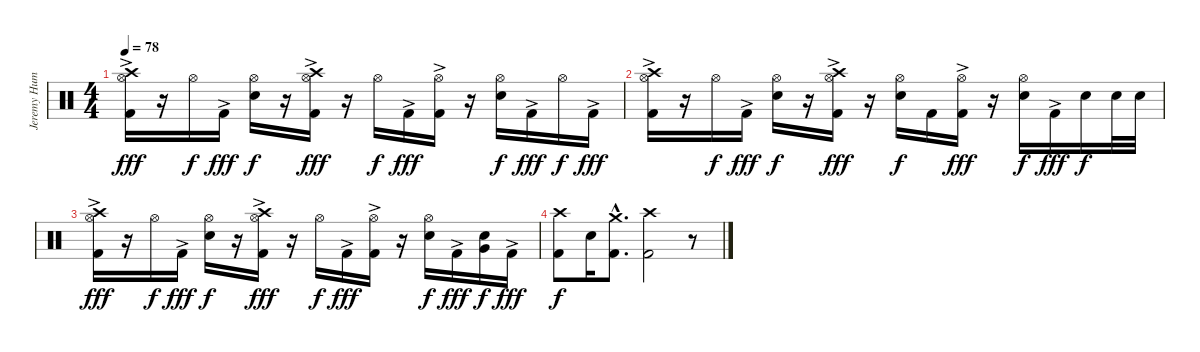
\track ("Jeremy Hummel" "Jeremy Hum") {instrument percussion}
\staff {score}
\articulation defaults
\ts (4 4)
\tempo 78
\clef neutral
\ks c
("Crash high (hit)" "Hi-Hat (open)" "Kick (hit) 2"{ac}).16{dy fff} r.16 "Hi-Hat (open)".16{dy f} "Kick (hit) 2"{ac}.16{dy fff} ("Hi-Hat (open)" "Snare (hit) 2").16{dy f} r.16 ("Crash high (hit)" "Hi-Hat (open)" "Kick (hit) 2"{ac}).16{dy fff} r.16 "Hi-Hat (open)".16{dy f} "Kick (hit) 2"{ac}.16{dy fff} ("Hi-Hat (open)" "Kick (hit) 2"{ac}).16 r.16 ("Hi-Hat (open)" "Snare (hit) 2").16{dy f} "Kick (hit) 2"{ac}.16{dy fff} "Hi-Hat (open)".16{dy f} "Kick (hit) 2"{ac}.16{dy fff} |
("Crash high (hit)" "Hi-Hat (open)" "Kick (hit) 2"{ac}).16 r.16 "Hi-Hat (open)".16{dy f} "Kick (hit) 2"{ac}.16{dy fff} ("Hi-Hat (open)" "Snare (hit) 2").16{dy f} r.16 ("Crash high (hit)" "Hi-Hat (open)" "Kick (hit) 2"{ac}).16{dy fff} r.16 ("Hi-Hat (open)" "Snare (hit) 2").16{dy f} "Kick (hit) 2".16 ("Hi-Hat (open)" "Kick (hit) 2"{ac}).16{dy fff} r.16 ("Hi-Hat (open)" "Snare (hit) 2").16{dy f} "Kick (hit) 2"{ac}.16{dy fff} "Snare (hit) 2".16{dy f} "Snare (hit) 2".32 "Snare (hit) 2".32 |
("Crash high (hit)" "Hi-Hat (open)" "Kick (hit) 2"{ac}).16{dy fff} r.16 "Hi-Hat (open)".16{dy f} "Kick (hit) 2"{ac}.16{dy fff} ("Hi-Hat (open)" "Snare (hit) 2").16{dy f} r.16 ("Crash high (hit)" "Hi-Hat (open)" "Kick (hit) 2"{ac}).16{dy fff} r.16 "Hi-Hat (open)".16{dy f} "Kick (hit) 2"{ac}.16{dy fff} ("Hi-Hat (open)" "Kick (hit) 2"{ac}).16 r.16 ("Hi-Hat (open)" "Snare (hit) 2").16{dy f} "Kick (hit) 2"{ac}.16{dy fff} ("Snare (hit) 2" "Very Low Tom (hit)").16{dy f} "Kick (hit) 2"{ac}.16{dy fff} |
("Crash high (hit)" "Kick (hit) 2").8{dy f} "Snare (hit) 2".16 ("Crash medium (hit)"{hac} "Kick (hit) 2"{hac}).8{d} ("Crash high (hit)" "Kick (hit) 2").2 r.8
